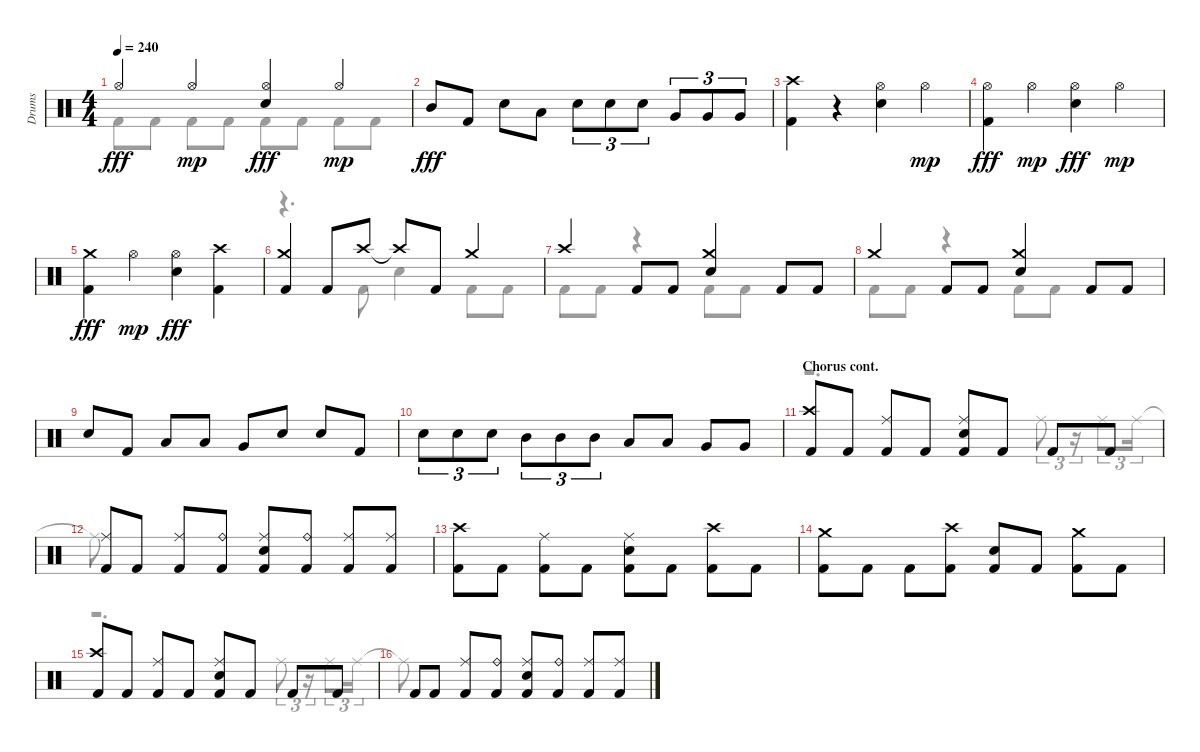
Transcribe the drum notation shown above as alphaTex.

\track ("Drums" "Drums") {instrument percussion}
\staff {score}
\articulation defaults
\voice
\ts (4 4)
\tempo 240
\clef neutral
\ks aminor "Hi-Hat (open)".4{dy fff} "Hi-Hat (open)".4{dy mp}
("Snare (hit) 2" "Hi-Hat (open)").4{dy fff} "Hi-Hat (open)".4{dy mp} |
"Mid Tom (hit)".8{dy fff} "Kick (hit) 2".8 "Snare (hit) 2".8 "Low Tom (hit)".8 "Snare (hit) 2".8{tu (3 2)} "Snare (hit) 2".8{tu (3 2)} "Snare (hit) 2".8{tu (3 2)} "Very Low Tom (hit)".8{tu (3 2)} "Very Low Tom (hit)".8{tu (3 2)} "Very Low Tom (hit)".8{tu (3 2)} |
("Kick (hit) 2" "Crash high (hit)").4 r.4 ("Hi-Hat (open)" "Snare (hit) 2").4 "Hi-Hat (open)".4{dy mp} |
("Kick (hit) 2" "Hi-Hat (open)").4{dy fff} "Hi-Hat (open)".4{dy mp} ("Hi-Hat (open)" "Snare (hit) 2").4{dy fff} "Hi-Hat (open)".4{dy mp} |
("Kick (hit) 2" "Crash medium (hit)").4{dy fff} "Hi-Hat (open)".4{dy mp} ("Hi-Hat (open)" "Snare (hit) 2").4{dy fff} ("Crash high (hit)" "Kick (hit) 2").4 |
("Kick (hit) 2" "Crash medium (hit)").4 "Kick (hit) 2".8 "Crash high (hit)".8 "Crash high (hit)"{t}.8 "Kick (hit) 2".8 "Crash medium (hit)".4 |
"Crash high (hit)".4 "Kick (hit) 2".8 "Kick (hit) 2".8 ("Snare (hit) 2" "Crash medium (hit)").4 "Kick (hit) 2".8 "Kick (hit) 2".8 |
"Crash medium (hit)".4 "Kick (hit) 2".8 "Kick (hit) 2".8 ("Crash medium (hit)" "Snare (hit) 2").4 "Kick (hit) 2".8 "Kick (hit) 2".8 |
"Snare (hit) 2".8 "Kick (hit) 2".8 "Low Tom (hit)".8 "Low Tom (hit)".8 "Very Low Tom (hit)".8 "Snare (hit) 2".8 "Snare (hit) 2".8 "Kick (hit) 2".8 |
"Snare (hit) 2".8{tu (3 2)} "Snare (hit) 2".8{tu (3 2)} "Snare (hit) 2".8{tu (3 2)} "Mid Tom (hit)".8{tu (3 2)} "Mid Tom (hit)".8{tu (3 2)} "Mid Tom (hit)".8{tu (3 2)} "Low Tom (hit)".8 "Low Tom (hit)".8 "Very Low Tom (hit)".8 "Very Low Tom (hit)".8 |
\section ("" "Chorus cont.")
("Kick (hit) 2" "Crash high (hit)").8 "Kick (hit) 2".8 ("Kick (hit) 2" "Ride (middle)").8 "Kick (hit) 2".8 ("Snare (hit) 2" "Ride (middle)" "Kick (hit) 2").8 "Kick (hit) 2".8 "Kick (hit) 2".8 "Kick (hit) 2".8 |
("Kick (hit) 2" "Ride (middle)").8 "Kick (hit) 2".8 ("Kick (hit) 2" "Ride (middle)").8 ("Kick (hit) 2" "Ride (bell)").8 ("Ride (middle)" "Snare (hit) 2" "Kick (hit) 2").8 ("Kick (hit) 2" "Ride (bell)").8 ("Kick (hit) 2" "Ride (middle)").8 ("Kick (hit) 2" "Ride (middle)").8 |
("Crash high (hit)" "Kick (hit) 2").8 "Kick (hit) 2".8 ("Kick (hit) 2" "Ride (middle)").8 "Kick (hit) 2".8 ("Kick (hit) 2" "Snare (hit) 2" "Ride (middle)").8 "Kick (hit) 2".8 ("Kick (hit) 2" "Crash high (hit)").8 "Kick (hit) 2".8 |
("Kick (hit) 2" "Crash medium (hit)").8 "Kick (hit) 2".8 "Kick (hit) 2".8 ("Crash high (hit)" "Kick (hit) 2").8 ("Kick (hit) 2" "Snare (hit) 2").8 "Kick (hit) 2".8 ("Kick (hit) 2" "Crash medium (hit)").8 "Kick (hit) 2".8 |
("Crash high (hit)" "Kick (hit) 2").8 "Kick (hit) 2".8 ("Ride (middle)" "Kick (hit) 2").8 "Kick (hit) 2".8 ("Kick (hit) 2" "Ride (middle)" "Snare (hit) 2").8 "Kick (hit) 2".8 "Kick (hit) 2".8 "Kick (hit) 2".8 |
"Kick (hit) 2".8 "Kick (hit) 2".8 ("Kick (hit) 2" "Ride (middle)").8 ("Kick (hit) 2" "Ride (bell)").8 ("Kick (hit) 2" "Ride (middle)" "Snare (hit) 2").8 ("Kick (hit) 2" "Ride (bell)").8 ("Kick (hit) 2" "Ride (middle)").8 ("Kick (hit) 2" "Ride (middle)").8
\voice
\clef neutral
\ottava regular
\simile none
\ks aminor "Kick (hit) 2".8{dy fff} "Kick (hit) 2".8 "Kick (hit) 2".8 "Kick (hit) 2".8 "Kick (hit) 2".8 "Kick (hit) 2".8 "Kick (hit) 2".8 "Kick (hit) 2".8
|
|
|
|
|
r.4{d} "Kick (hit) 2".8 "Snare (hit) 2".4 "Kick (hit) 2".8 "Kick (hit) 2".8 |
"Kick (hit) 2".8 "Kick (hit) 2".8 r.4 "Kick (hit) 2".8 "Kick (hit) 2".8 |
"Kick (hit) 2".8 "Kick (hit) 2".8 r.4 "Kick (hit) 2".8 "Kick (hit) 2".8 |
|
|
r.2{d} "Ride (middle)".8{tu (3 2)} r.16{tu (3 2)} "Ride (middle)".8{tu (3 2)} "Ride (middle)".16{tu (3 2)} |
"Ride (middle)"{t}.8 |
|
|
r.2{d} "Ride (middle)".8{tu (3 2)} r.16{tu (3 2)} "Ride (middle)".8{tu (3 2)} "Ride (middle)".16{tu (3 2)} |
"Ride (middle)"{t}.8
